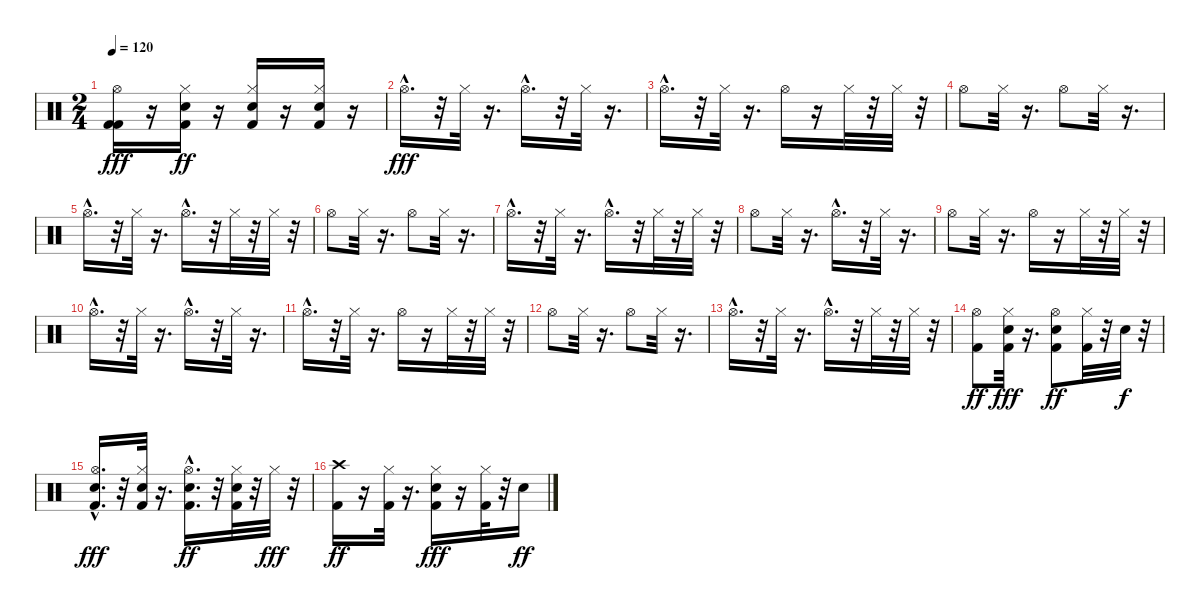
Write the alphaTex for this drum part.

\track "" {instrument percussion}
\staff {score}
\articulation defaults
\ts (2 4)
\tempo 120
\clef neutral
\ks c
("Kick (hit) 2" "Kick (hit) 2" "Hi-Hat (open)").16{dy fff} r.16 ("Kick (hit) 2" "Hi-Hat (closed)" "Snare (hit) 2").16{dy ff} r.16 ("Hi-Hat (closed)" "Kick (hit) 2" "Snare (hit) 2").16 r.16 ("Snare (hit) 2" "Hi-Hat (closed)" "Kick (hit) 2").16 r.16 |
"Hi-Hat (open)"{hac}.16{d dy fff} r.32 "Hi-Hat (closed)".32 r.16{d} "Hi-Hat (open)"{hac}.16{d} r.32 "Hi-Hat (closed)".32 r.16{d} |
"Hi-Hat (open)"{hac}.16{d} r.32 "Hi-Hat (closed)".32 r.16{d} "Hi-Hat (open)".16 r.16 "Hi-Hat (closed)".32 r.32 "Hi-Hat (closed)".32 r.32 |
"Hi-Hat (open)".8 "Hi-Hat (closed)".32 r.16{d} "Hi-Hat (open)".8 "Hi-Hat (closed)".32 r.16{d} |
"Hi-Hat (open)"{hac}.16{d} r.32 "Hi-Hat (closed)".32 r.16{d} "Hi-Hat (open)"{hac}.16{d} r.32 "Hi-Hat (closed)".32 r.32 "Hi-Hat (closed)".32 r.32 |
"Hi-Hat (open)".8 "Hi-Hat (closed)".32 r.16{d} "Hi-Hat (open)".8 "Hi-Hat (closed)".32 r.16{d} |
"Hi-Hat (open)"{hac}.16{d} r.32 "Hi-Hat (closed)".32 r.16{d} "Hi-Hat (open)"{hac}.16{d} r.32 "Hi-Hat (closed)".32 r.32 "Hi-Hat (closed)".32 r.32 |
"Hi-Hat (open)".8 "Hi-Hat (closed)".32 r.16{d} "Hi-Hat (open)"{hac}.16{d} r.32 "Hi-Hat (closed)".32 r.16{d} |
"Hi-Hat (open)".8 "Hi-Hat (closed)".32 r.16{d} "Hi-Hat (open)".16 r.16 "Hi-Hat (closed)".32 r.32 "Hi-Hat (closed)".32 r.32 |
"Hi-Hat (open)"{hac}.16{d} r.32 "Hi-Hat (closed)".32 r.16{d} "Hi-Hat (open)"{hac}.16{d} r.32 "Hi-Hat (closed)".32 r.16{d} |
"Hi-Hat (open)"{hac}.16{d} r.32 "Hi-Hat (closed)".32 r.16{d} "Hi-Hat (open)".16 r.16 "Hi-Hat (closed)".32 r.32 "Hi-Hat (closed)".32 r.32 |
"Hi-Hat (open)".8 "Hi-Hat (closed)".32 r.16{d} "Hi-Hat (open)".8 "Hi-Hat (closed)".32 r.16{d} |
"Hi-Hat (open)"{hac}.16{d} r.32 "Hi-Hat (closed)".32 r.16{d} "Hi-Hat (open)"{hac}.16{d} r.32 "Hi-Hat (closed)".32 r.32 "Hi-Hat (closed)".32 r.32 |
("Hi-Hat (open)" "Kick (hit) 2").8{dy ff} ("Kick (hit) 2" "Snare (hit) 2" "Hi-Hat (closed)").32{dy fff} r.16{d} ("Hi-Hat (open)" "Kick (hit) 2" "Snare (hit) 2").8{dy ff} ("Hi-Hat (closed)" "Kick (hit) 2").32 r.32 "Snare (hit) 2".32{dy f} r.32 |
("Kick (hit) 2" "Snare (hit) 2" "Hi-Hat (open)"{hac}).16{d dy fff} r.32 ("Kick (hit) 2" "Hi-Hat (closed)" "Snare (hit) 2").32 r.16{d} ("Snare (hit) 2" "Hi-Hat (open)"{hac} "Kick (hit) 2").16{d dy ff} r.32 ("Hi-Hat (closed)" "Kick (hit) 2" "Snare (hit) 2").32 r.32 "Hi-Hat (closed)".32{dy fff} r.32 |
("Crash high (hit)" "Kick (hit) 2").16{dy ff} r.16 ("Hi-Hat (closed)" "Kick (hit) 2").32 r.16{d} ("Kick (hit) 2" "Snare (hit) 2" "Hi-Hat (closed)").16{dy fff} r.16 ("Kick (hit) 2" "Hi-Hat (closed)").32 r.32 "Snare (hit) 2".16{dy ff}
